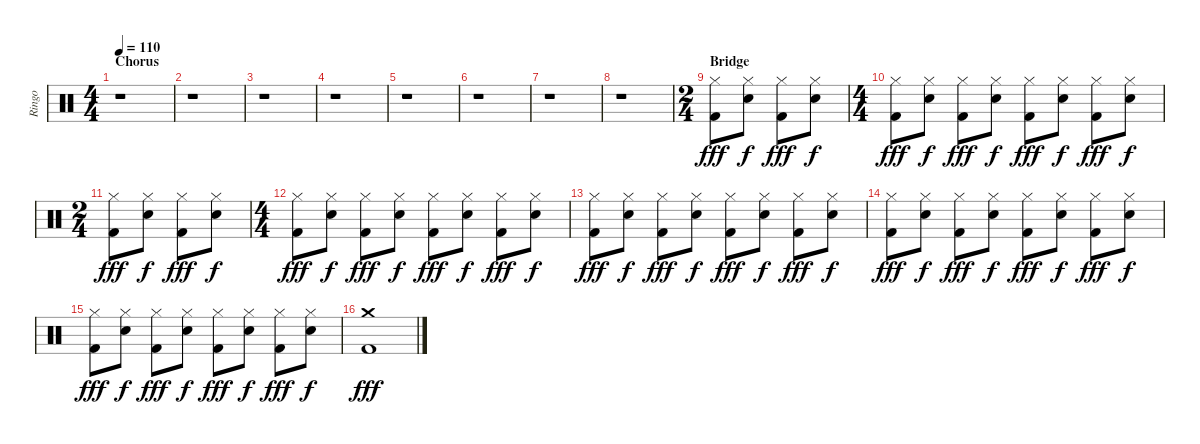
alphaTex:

\track ("Ringo" "Ringo") {instrument percussion}
\staff {score}
\articulation defaults
\ts (4 4)
\section ("" "Chorus")
\tempo 110
\clef neutral
\ks c
r.1{dy ff} |
r.1 |
r.1 |
r.1 |
r.1 |
r.1 |
r.1 |
r.1 |
\ts (2 4)
\section ("" "Bridge")
("Hi-Hat (closed)" "Kick (hit) 2").8{dy fff} ("Hi-Hat (closed)" "Snare (hit) 2").8{dy f} ("Hi-Hat (closed)" "Kick (hit) 2").8{dy fff} ("Hi-Hat (closed)" "Snare (hit) 2").8{dy f} |
\ts (4 4)
("Hi-Hat (closed)" "Kick (hit) 2").8{dy fff} ("Hi-Hat (closed)" "Snare (hit) 2").8{dy f} ("Hi-Hat (closed)" "Kick (hit) 2").8{dy fff} ("Hi-Hat (closed)" "Snare (hit) 2").8{dy f} ("Hi-Hat (closed)" "Kick (hit) 2").8{dy fff} ("Hi-Hat (closed)" "Snare (hit) 2").8{dy f} ("Hi-Hat (closed)" "Kick (hit) 2").8{dy fff} ("Hi-Hat (closed)" "Snare (hit) 2").8{dy f} |
\ts (2 4)
("Hi-Hat (closed)" "Kick (hit) 2").8{dy fff} ("Hi-Hat (closed)" "Snare (hit) 2").8{dy f} ("Hi-Hat (closed)" "Kick (hit) 2").8{dy fff} ("Hi-Hat (closed)" "Snare (hit) 2").8{dy f} |
\ts (4 4)
("Hi-Hat (closed)" "Kick (hit) 2").8{dy fff} ("Hi-Hat (closed)" "Snare (hit) 2").8{dy f} ("Hi-Hat (closed)" "Kick (hit) 2").8{dy fff} ("Hi-Hat (closed)" "Snare (hit) 2").8{dy f} ("Hi-Hat (closed)" "Kick (hit) 2").8{dy fff} ("Hi-Hat (closed)" "Snare (hit) 2").8{dy f} ("Hi-Hat (closed)" "Kick (hit) 2").8{dy fff} ("Hi-Hat (closed)" "Snare (hit) 2").8{dy f} |
("Hi-Hat (closed)" "Kick (hit) 2").8{dy fff} ("Hi-Hat (closed)" "Snare (hit) 2").8{dy f} ("Hi-Hat (closed)" "Kick (hit) 2").8{dy fff} ("Hi-Hat (closed)" "Snare (hit) 2").8{dy f} ("Hi-Hat (closed)" "Kick (hit) 2").8{dy fff} ("Hi-Hat (closed)" "Snare (hit) 2").8{dy f} ("Hi-Hat (closed)" "Kick (hit) 2").8{dy fff} ("Hi-Hat (closed)" "Snare (hit) 2").8{dy f} |
("Hi-Hat (closed)" "Kick (hit) 2").8{dy fff} ("Hi-Hat (closed)" "Snare (hit) 2").8{dy f} ("Hi-Hat (closed)" "Kick (hit) 2").8{dy fff} ("Hi-Hat (closed)" "Snare (hit) 2").8{dy f} ("Hi-Hat (closed)" "Kick (hit) 2").8{dy fff} ("Hi-Hat (closed)" "Snare (hit) 2").8{dy f} ("Hi-Hat (closed)" "Kick (hit) 2").8{dy fff} ("Hi-Hat (closed)" "Snare (hit) 2").8{dy f} |
("Hi-Hat (closed)" "Kick (hit) 2").8{dy fff} ("Hi-Hat (closed)" "Snare (hit) 2").8{dy f} ("Hi-Hat (closed)" "Kick (hit) 2").8{dy fff} ("Hi-Hat (closed)" "Snare (hit) 2").8{dy f} ("Hi-Hat (closed)" "Kick (hit) 2").8{dy fff} ("Hi-Hat (closed)" "Snare (hit) 2").8{dy f} ("Hi-Hat (closed)" "Kick (hit) 2").8{dy fff} ("Hi-Hat (closed)" "Snare (hit) 2").8{dy f} |
("Crash medium (hit)" "Kick (hit) 2").1{dy fff}
